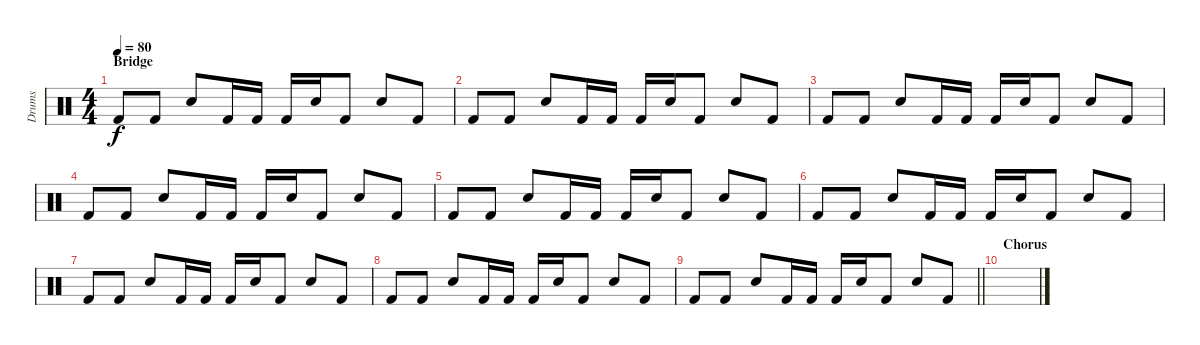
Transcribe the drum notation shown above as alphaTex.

\track ("Drums" "Drums") {instrument percussion}
\staff
\articulation defaults
\ts (4 4)
\section ("" "Bridge")
\tempo 80
\clef neutral
\ks c "Kick (hit) 2".8{dy f} "Kick (hit) 2".8 "Snare (hit) 2".8 "Kick (hit) 2".16 "Kick (hit) 2".16 "Kick (hit) 2".16 "Snare (hit) 2".16 "Kick (hit) 2".8 "Snare (hit) 2".8 "Kick (hit) 2".8
|
"Kick (hit) 2".8 "Kick (hit) 2".8 "Snare (hit) 2".8 "Kick (hit) 2".16 "Kick (hit) 2".16 "Kick (hit) 2".16 "Snare (hit) 2".16 "Kick (hit) 2".8 "Snare (hit) 2".8 "Kick (hit) 2".8 |
"Kick (hit) 2".8 "Kick (hit) 2".8 "Snare (hit) 2".8 "Kick (hit) 2".16 "Kick (hit) 2".16 "Kick (hit) 2".16 "Snare (hit) 2".16 "Kick (hit) 2".8 "Snare (hit) 2".8 "Kick (hit) 2".8 |
"Kick (hit) 2".8 "Kick (hit) 2".8 "Snare (hit) 2".8 "Kick (hit) 2".16 "Kick (hit) 2".16 "Kick (hit) 2".16 "Snare (hit) 2".16 "Kick (hit) 2".8 "Snare (hit) 2".8 "Kick (hit) 2".8 |
"Kick (hit) 2".8 "Kick (hit) 2".8 "Snare (hit) 2".8 "Kick (hit) 2".16 "Kick (hit) 2".16 "Kick (hit) 2".16 "Snare (hit) 2".16 "Kick (hit) 2".8 "Snare (hit) 2".8 "Kick (hit) 2".8 |
"Kick (hit) 2".8 "Kick (hit) 2".8 "Snare (hit) 2".8 "Kick (hit) 2".16 "Kick (hit) 2".16 "Kick (hit) 2".16 "Snare (hit) 2".16 "Kick (hit) 2".8 "Snare (hit) 2".8 "Kick (hit) 2".8 |
"Kick (hit) 2".8 "Kick (hit) 2".8 "Snare (hit) 2".8 "Kick (hit) 2".16 "Kick (hit) 2".16 "Kick (hit) 2".16 "Snare (hit) 2".16 "Kick (hit) 2".8 "Snare (hit) 2".8 "Kick (hit) 2".8 |
"Kick (hit) 2".8 "Kick (hit) 2".8 "Snare (hit) 2".8 "Kick (hit) 2".16 "Kick (hit) 2".16 "Kick (hit) 2".16 "Snare (hit) 2".16 "Kick (hit) 2".8 "Snare (hit) 2".8 "Kick (hit) 2".8 |
\barLineRight lightlight "Kick (hit) 2".8 "Kick (hit) 2".8 "Snare (hit) 2".8 "Kick (hit) 2".16 "Kick (hit) 2".16 "Kick (hit) 2".16 "Snare (hit) 2".16 "Kick (hit) 2".8 "Snare (hit) 2".8 "Kick (hit) 2".8
|
\section ("" "Chorus")
